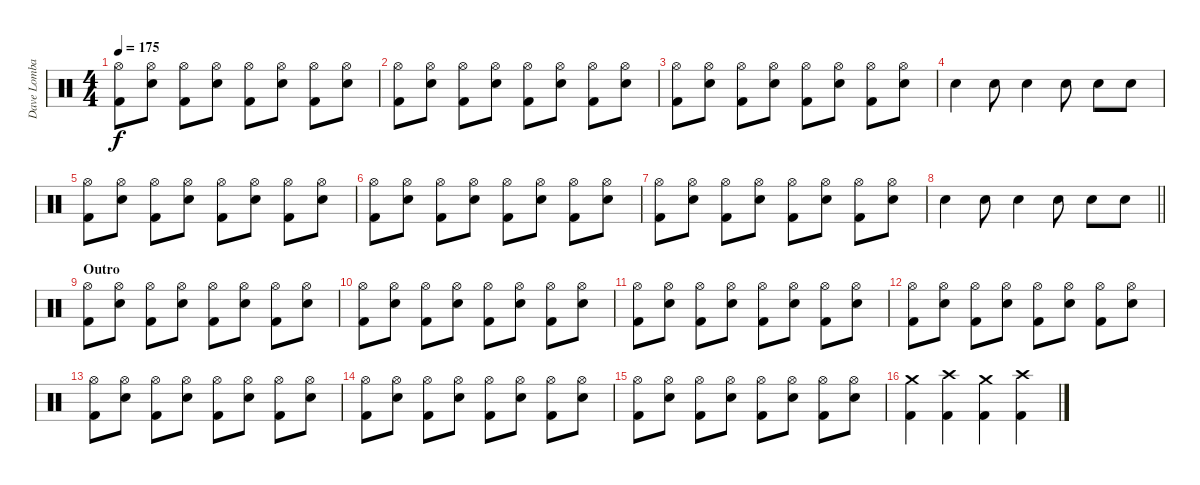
\track ("Dave Lombardo" "Dave Lomba") {instrument percussion}
\staff {score}
\articulation defaults
\ts (4 4)
\tempo 175
\clef neutral
\ks c
("Hi-Hat (open)" "Kick (hit) 2").8{dy f} ("Hi-Hat (open)" "Snare (hit) 2").8 ("Hi-Hat (open)" "Kick (hit) 2").8 ("Hi-Hat (open)" "Snare (hit) 2").8 ("Hi-Hat (open)" "Kick (hit) 2").8 ("Hi-Hat (open)" "Snare (hit) 2").8 ("Hi-Hat (open)" "Kick (hit) 2").8 ("Hi-Hat (open)" "Snare (hit) 2").8 |
("Hi-Hat (open)" "Kick (hit) 2").8 ("Hi-Hat (open)" "Snare (hit) 2").8 ("Hi-Hat (open)" "Kick (hit) 2").8 ("Hi-Hat (open)" "Snare (hit) 2").8 ("Hi-Hat (open)" "Kick (hit) 2").8 ("Hi-Hat (open)" "Snare (hit) 2").8 ("Hi-Hat (open)" "Kick (hit) 2").8 ("Hi-Hat (open)" "Snare (hit) 2").8 |
("Hi-Hat (open)" "Kick (hit) 2").8 ("Hi-Hat (open)" "Snare (hit) 2").8 ("Hi-Hat (open)" "Kick (hit) 2").8 ("Hi-Hat (open)" "Snare (hit) 2").8 ("Hi-Hat (open)" "Kick (hit) 2").8 ("Hi-Hat (open)" "Snare (hit) 2").8 ("Hi-Hat (open)" "Kick (hit) 2").8 ("Hi-Hat (open)" "Snare (hit) 2").8 |
"Snare (hit) 2".4 "Snare (hit) 2".8 "Snare (hit) 2".4 "Snare (hit) 2".8 "Snare (hit) 2".8 "Snare (hit) 2".8 |
("Hi-Hat (open)" "Kick (hit) 2").8 ("Hi-Hat (open)" "Snare (hit) 2").8 ("Hi-Hat (open)" "Kick (hit) 2").8 ("Hi-Hat (open)" "Snare (hit) 2").8 ("Hi-Hat (open)" "Kick (hit) 2").8 ("Hi-Hat (open)" "Snare (hit) 2").8 ("Hi-Hat (open)" "Kick (hit) 2").8 ("Hi-Hat (open)" "Snare (hit) 2").8 |
("Hi-Hat (open)" "Kick (hit) 2").8 ("Hi-Hat (open)" "Snare (hit) 2").8 ("Hi-Hat (open)" "Kick (hit) 2").8 ("Hi-Hat (open)" "Snare (hit) 2").8 ("Hi-Hat (open)" "Kick (hit) 2").8 ("Hi-Hat (open)" "Snare (hit) 2").8 ("Hi-Hat (open)" "Kick (hit) 2").8 ("Hi-Hat (open)" "Snare (hit) 2").8 |
("Hi-Hat (open)" "Kick (hit) 2").8 ("Hi-Hat (open)" "Snare (hit) 2").8 ("Hi-Hat (open)" "Kick (hit) 2").8 ("Hi-Hat (open)" "Snare (hit) 2").8 ("Hi-Hat (open)" "Kick (hit) 2").8 ("Hi-Hat (open)" "Snare (hit) 2").8 ("Hi-Hat (open)" "Kick (hit) 2").8 ("Hi-Hat (open)" "Snare (hit) 2").8 |
\barLineRight lightlight "Snare (hit) 2".4 "Snare (hit) 2".8 "Snare (hit) 2".4 "Snare (hit) 2".8 "Snare (hit) 2".8 "Snare (hit) 2".8
|
\section ("" "Outro")
("Hi-Hat (open)" "Kick (hit) 2").8 ("Hi-Hat (open)" "Snare (hit) 2").8 ("Hi-Hat (open)" "Kick (hit) 2").8 ("Hi-Hat (open)" "Snare (hit) 2").8 ("Hi-Hat (open)" "Kick (hit) 2").8 ("Hi-Hat (open)" "Snare (hit) 2").8 ("Hi-Hat (open)" "Kick (hit) 2").8 ("Hi-Hat (open)" "Snare (hit) 2").8 |
("Hi-Hat (open)" "Kick (hit) 2").8 ("Hi-Hat (open)" "Snare (hit) 2").8 ("Hi-Hat (open)" "Kick (hit) 2").8 ("Hi-Hat (open)" "Snare (hit) 2").8 ("Hi-Hat (open)" "Kick (hit) 2").8 ("Hi-Hat (open)" "Snare (hit) 2").8 ("Hi-Hat (open)" "Kick (hit) 2").8 ("Hi-Hat (open)" "Snare (hit) 2").8 |
("Hi-Hat (open)" "Kick (hit) 2").8 ("Hi-Hat (open)" "Snare (hit) 2").8 ("Hi-Hat (open)" "Kick (hit) 2").8 ("Hi-Hat (open)" "Snare (hit) 2").8 ("Hi-Hat (open)" "Kick (hit) 2").8 ("Hi-Hat (open)" "Snare (hit) 2").8 ("Hi-Hat (open)" "Kick (hit) 2").8 ("Hi-Hat (open)" "Snare (hit) 2").8 |
("Hi-Hat (open)" "Kick (hit) 2").8 ("Hi-Hat (open)" "Snare (hit) 2").8 ("Hi-Hat (open)" "Kick (hit) 2").8 ("Hi-Hat (open)" "Snare (hit) 2").8 ("Hi-Hat (open)" "Kick (hit) 2").8 ("Hi-Hat (open)" "Snare (hit) 2").8 ("Hi-Hat (open)" "Kick (hit) 2").8 ("Hi-Hat (open)" "Snare (hit) 2").8 |
("Hi-Hat (open)" "Kick (hit) 2").8 ("Hi-Hat (open)" "Snare (hit) 2").8 ("Hi-Hat (open)" "Kick (hit) 2").8 ("Hi-Hat (open)" "Snare (hit) 2").8 ("Hi-Hat (open)" "Kick (hit) 2").8 ("Hi-Hat (open)" "Snare (hit) 2").8 ("Hi-Hat (open)" "Kick (hit) 2").8 ("Hi-Hat (open)" "Snare (hit) 2").8 |
("Hi-Hat (open)" "Kick (hit) 2").8 ("Hi-Hat (open)" "Snare (hit) 2").8 ("Hi-Hat (open)" "Kick (hit) 2").8 ("Hi-Hat (open)" "Snare (hit) 2").8 ("Hi-Hat (open)" "Kick (hit) 2").8 ("Hi-Hat (open)" "Snare (hit) 2").8 ("Hi-Hat (open)" "Kick (hit) 2").8 ("Hi-Hat (open)" "Snare (hit) 2").8 |
("Hi-Hat (open)" "Kick (hit) 2").8 ("Hi-Hat (open)" "Snare (hit) 2").8 ("Hi-Hat (open)" "Kick (hit) 2").8 ("Hi-Hat (open)" "Snare (hit) 2").8 ("Hi-Hat (open)" "Kick (hit) 2").8 ("Hi-Hat (open)" "Snare (hit) 2").8 ("Hi-Hat (open)" "Kick (hit) 2").8 ("Hi-Hat (open)" "Snare (hit) 2").8 |
("Crash medium (hit)" "Kick (hit) 2").4 ("Crash high (hit)" "Kick (hit) 2").4 ("Crash medium (hit)" "Kick (hit) 2").4 ("Crash high (hit)" "Kick (hit) 2").4
